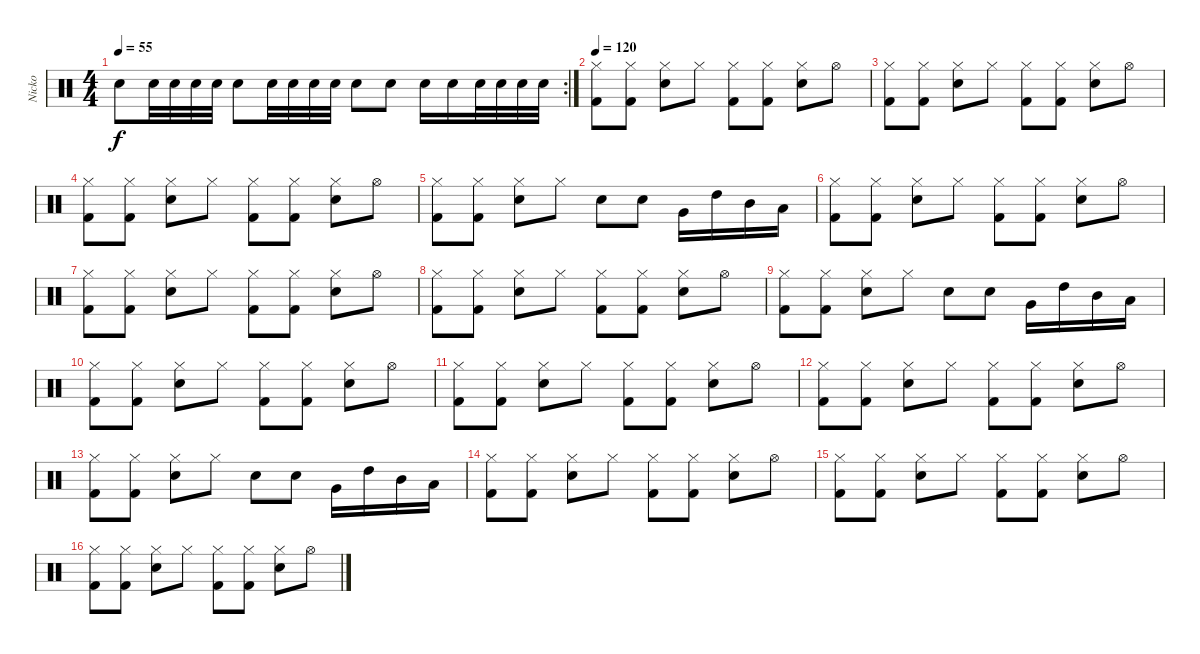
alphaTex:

\track ("Nicko" "Nicko") {instrument percussion}
\staff {score}
\articulation defaults
\rc 2
\ts (4 4)
\tempo 55
\clef neutral
\ks c "Snare (hit) 2".8{dy f volume 16} "Snare (hit) 2".32 "Snare (hit) 2".32 "Snare (hit) 2".32 "Snare (hit) 2".32 "Snare (hit) 2".8 "Snare (hit) 2".32 "Snare (hit) 2".32 "Snare (hit) 2".32 "Snare (hit) 2".32 "Snare (hit) 2".8 "Snare (hit) 2".8 "Snare (hit) 2".16 "Snare (hit) 2".16 "Snare (hit) 2".32 "Snare (hit) 2".32 "Snare (hit) 2".32 "Snare (hit) 2".32
|
\tempo 120
("Kick (hit) 2" "Hi-Hat (closed)").8{volume 14} ("Kick (hit) 2" "Hi-Hat (closed)").8 ("Electric Snare (hit)" "Hi-Hat (closed)").8 "Hi-Hat (closed)".8 ("Kick (hit) 2" "Hi-Hat (closed)").8 ("Kick (hit) 2" "Hi-Hat (closed)").8 ("Electric Snare (hit)" "Hi-Hat (closed)").8 "Hi-Hat (open)".8 |
("Kick (hit) 2" "Hi-Hat (closed)").8 ("Kick (hit) 2" "Hi-Hat (closed)").8 ("Electric Snare (hit)" "Hi-Hat (closed)").8 "Hi-Hat (closed)".8 ("Kick (hit) 2" "Hi-Hat (closed)").8 ("Kick (hit) 2" "Hi-Hat (closed)").8 ("Electric Snare (hit)" "Hi-Hat (closed)").8 "Hi-Hat (open)".8 |
("Kick (hit) 2" "Hi-Hat (closed)").8 ("Kick (hit) 2" "Hi-Hat (closed)").8 ("Electric Snare (hit)" "Hi-Hat (closed)").8 "Hi-Hat (closed)".8 ("Kick (hit) 2" "Hi-Hat (closed)").8 ("Kick (hit) 2" "Hi-Hat (closed)").8 ("Electric Snare (hit)" "Hi-Hat (closed)").8 "Hi-Hat (open)".8 |
("Kick (hit) 2" "Hi-Hat (closed)").8 ("Kick (hit) 2" "Hi-Hat (closed)").8 ("Electric Snare (hit)" "Hi-Hat (closed)").8 "Hi-Hat (closed)".8 "Snare (hit) 2".8 "Snare (hit) 2".8 "Very Low Tom (hit)".16 "High Tom (hit)".16 "Mid Tom (hit)".16 "Low Tom (hit)".16 |
("Kick (hit) 2" "Hi-Hat (closed)").8 ("Kick (hit) 2" "Hi-Hat (closed)").8 ("Electric Snare (hit)" "Hi-Hat (closed)").8 "Hi-Hat (closed)".8 ("Kick (hit) 2" "Hi-Hat (closed)").8 ("Kick (hit) 2" "Hi-Hat (closed)").8 ("Electric Snare (hit)" "Hi-Hat (closed)").8 "Hi-Hat (open)".8 |
("Kick (hit) 2" "Hi-Hat (closed)").8 ("Kick (hit) 2" "Hi-Hat (closed)").8 ("Electric Snare (hit)" "Hi-Hat (closed)").8 "Hi-Hat (closed)".8 ("Kick (hit) 2" "Hi-Hat (closed)").8 ("Kick (hit) 2" "Hi-Hat (closed)").8 ("Electric Snare (hit)" "Hi-Hat (closed)").8 "Hi-Hat (open)".8 |
("Kick (hit) 2" "Hi-Hat (closed)").8 ("Kick (hit) 2" "Hi-Hat (closed)").8 ("Electric Snare (hit)" "Hi-Hat (closed)").8 "Hi-Hat (closed)".8 ("Kick (hit) 2" "Hi-Hat (closed)").8 ("Kick (hit) 2" "Hi-Hat (closed)").8 ("Electric Snare (hit)" "Hi-Hat (closed)").8 "Hi-Hat (open)".8 |
("Kick (hit) 2" "Hi-Hat (closed)").8 ("Kick (hit) 2" "Hi-Hat (closed)").8 ("Electric Snare (hit)" "Hi-Hat (closed)").8 "Hi-Hat (closed)".8 "Snare (hit) 2".8 "Snare (hit) 2".8 "Very Low Tom (hit)".16 "High Tom (hit)".16 "Mid Tom (hit)".16 "Low Tom (hit)".16 |
("Kick (hit) 2" "Hi-Hat (closed)").8 ("Kick (hit) 2" "Hi-Hat (closed)").8 ("Electric Snare (hit)" "Hi-Hat (closed)").8 "Hi-Hat (closed)".8 ("Kick (hit) 2" "Hi-Hat (closed)").8 ("Kick (hit) 2" "Hi-Hat (closed)").8 ("Electric Snare (hit)" "Hi-Hat (closed)").8 "Hi-Hat (open)".8 |
("Kick (hit) 2" "Hi-Hat (closed)").8 ("Kick (hit) 2" "Hi-Hat (closed)").8 ("Electric Snare (hit)" "Hi-Hat (closed)").8 "Hi-Hat (closed)".8 ("Kick (hit) 2" "Hi-Hat (closed)").8 ("Kick (hit) 2" "Hi-Hat (closed)").8 ("Electric Snare (hit)" "Hi-Hat (closed)").8 "Hi-Hat (open)".8 |
("Kick (hit) 2" "Hi-Hat (closed)").8 ("Kick (hit) 2" "Hi-Hat (closed)").8 ("Electric Snare (hit)" "Hi-Hat (closed)").8 "Hi-Hat (closed)".8 ("Kick (hit) 2" "Hi-Hat (closed)").8 ("Kick (hit) 2" "Hi-Hat (closed)").8 ("Electric Snare (hit)" "Hi-Hat (closed)").8 "Hi-Hat (open)".8 |
("Kick (hit) 2" "Hi-Hat (closed)").8 ("Kick (hit) 2" "Hi-Hat (closed)").8 ("Electric Snare (hit)" "Hi-Hat (closed)").8 "Hi-Hat (closed)".8 "Snare (hit) 2".8 "Snare (hit) 2".8 "Very Low Tom (hit)".16 "High Tom (hit)".16 "Mid Tom (hit)".16 "Low Tom (hit)".16 |
("Kick (hit) 2" "Hi-Hat (closed)").8 ("Kick (hit) 2" "Hi-Hat (closed)").8 ("Electric Snare (hit)" "Hi-Hat (closed)").8 "Hi-Hat (closed)".8 ("Kick (hit) 2" "Hi-Hat (closed)").8 ("Kick (hit) 2" "Hi-Hat (closed)").8 ("Electric Snare (hit)" "Hi-Hat (closed)").8 "Hi-Hat (open)".8 |
("Kick (hit) 2" "Hi-Hat (closed)").8 ("Kick (hit) 2" "Hi-Hat (closed)").8 ("Electric Snare (hit)" "Hi-Hat (closed)").8 "Hi-Hat (closed)".8 ("Kick (hit) 2" "Hi-Hat (closed)").8 ("Kick (hit) 2" "Hi-Hat (closed)").8 ("Electric Snare (hit)" "Hi-Hat (closed)").8 "Hi-Hat (open)".8 |
("Kick (hit) 2" "Hi-Hat (closed)").8 ("Kick (hit) 2" "Hi-Hat (closed)").8 ("Electric Snare (hit)" "Hi-Hat (closed)").8 "Hi-Hat (closed)".8 ("Kick (hit) 2" "Hi-Hat (closed)").8 ("Kick (hit) 2" "Hi-Hat (closed)").8 ("Electric Snare (hit)" "Hi-Hat (closed)").8 "Hi-Hat (open)".8
